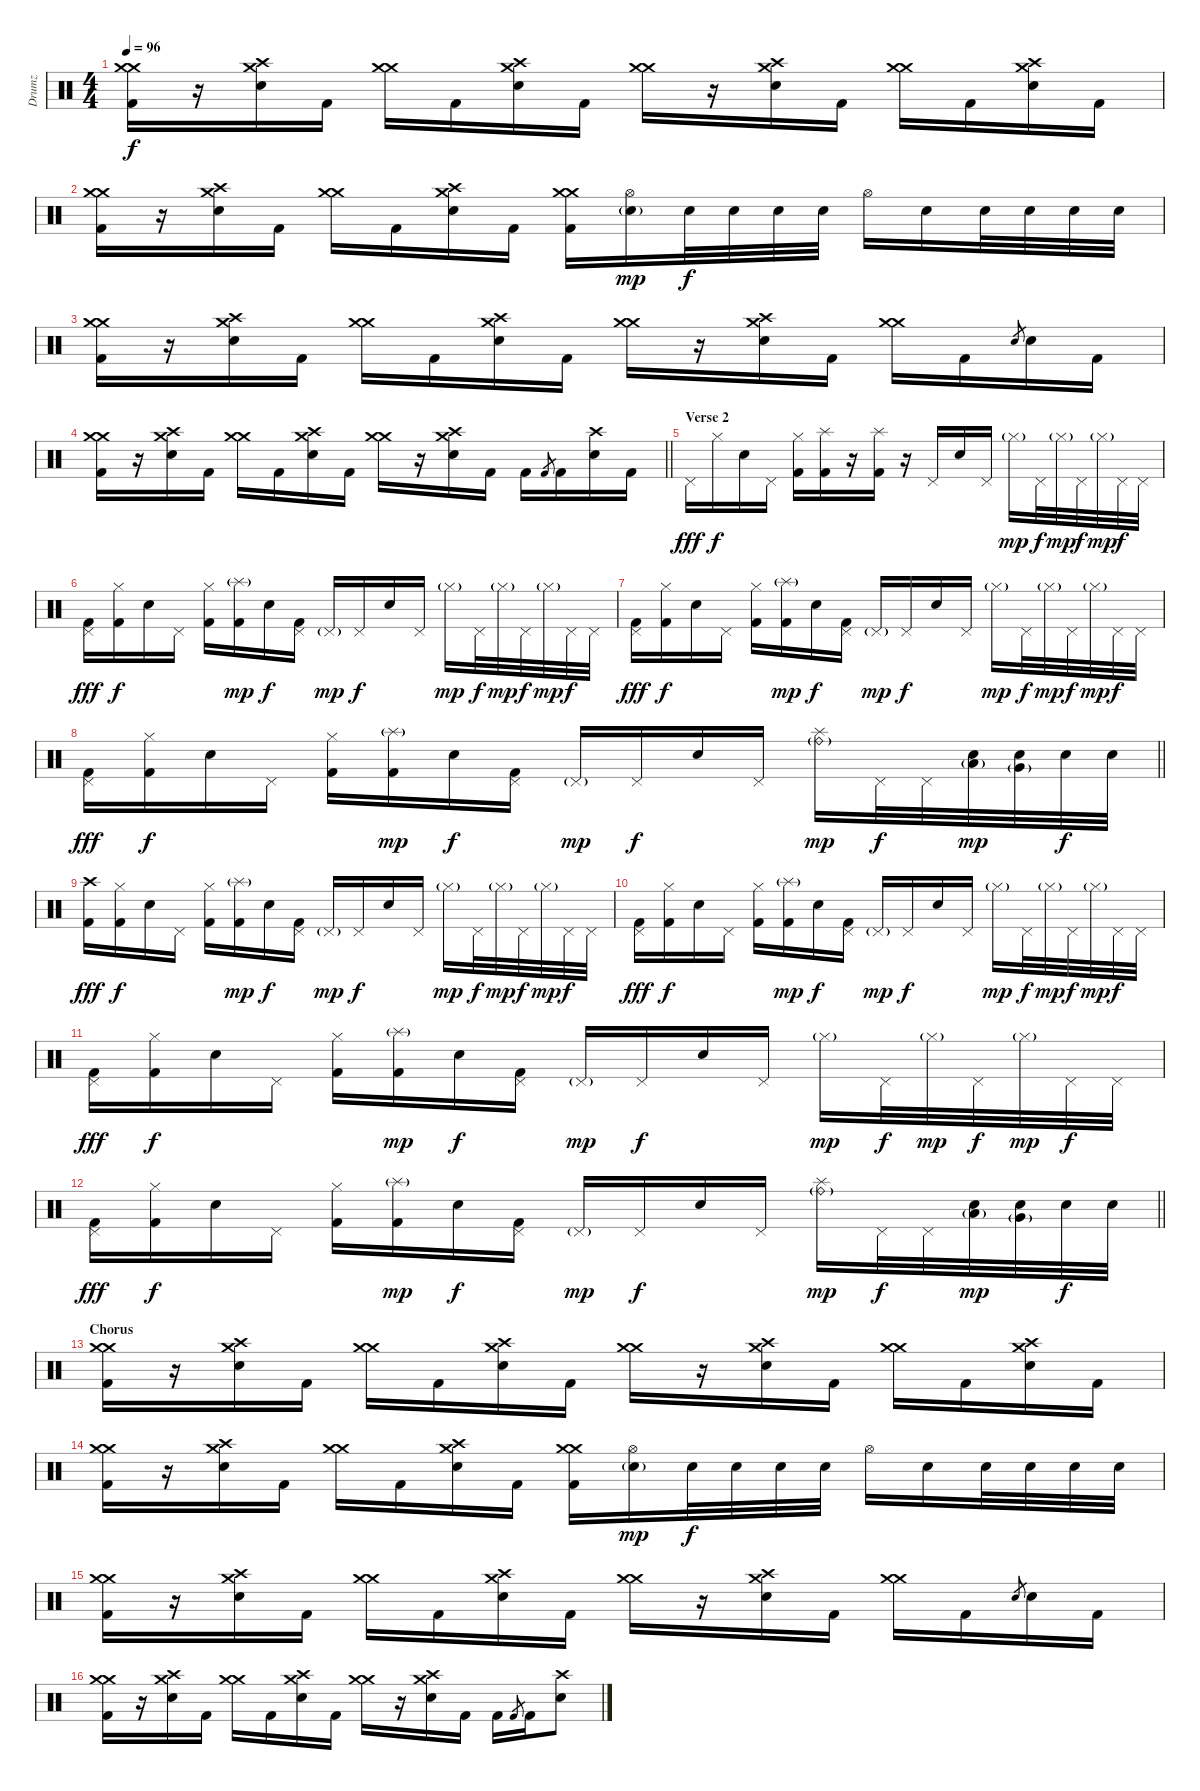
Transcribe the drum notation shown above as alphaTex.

\track ("Drumz" "Drumz") {instrument percussion}
\staff {score}
\articulation defaults
\ts (4 4)
\tempo 96
\clef neutral
\ks c
("Crash medium (hit)" "Crash medium (hit)" "Kick (hit) 2").16{dy f} r.16 ("Crash high (hit)" "Crash medium (hit)" "Electric Snare (hit)").16 "Kick (hit) 2".16 ("Crash medium (hit)" "Crash medium (hit)").16 "Kick (hit) 2".16 ("Crash high (hit)" "Crash medium (hit)" "Electric Snare (hit)").16 "Kick (hit) 2".16 ("Crash medium (hit)" "Crash medium (hit)").16 r.16 ("Crash high (hit)" "Crash medium (hit)" "Electric Snare (hit)").16 "Kick (hit) 2".16 ("Crash medium (hit)" "Crash medium (hit)").16 "Kick (hit) 2".16 ("Crash high (hit)" "Crash medium (hit)" "Electric Snare (hit)").16 "Kick (hit) 2".16 |
("Crash medium (hit)" "Crash medium (hit)" "Kick (hit) 2").16 r.16 ("Crash high (hit)" "Crash medium (hit)" "Electric Snare (hit)").16 "Kick (hit) 2".16 ("Crash medium (hit)" "Crash medium (hit)").16 "Kick (hit) 2".16 ("Crash high (hit)" "Crash medium (hit)" "Electric Snare (hit)").16 "Kick (hit) 2".16 ("Crash medium (hit)" "Crash medium (hit)" "Kick (hit) 2").16 ("Hi-Hat (open)" "Electric Snare (hit)"{g}).16{dy mp} "Electric Snare (hit)".32{dy f} "Electric Snare (hit)".32 "Electric Snare (hit)".32 "Electric Snare (hit)".32 "Hi-Hat (open)".16 "Electric Snare (hit)".16 "Electric Snare (hit)".32 "Electric Snare (hit)".32 "Electric Snare (hit)".32 "Electric Snare (hit)".32 |
("Crash medium (hit)" "Crash medium (hit)" "Kick (hit) 2").16 r.16 ("Crash high (hit)" "Crash medium (hit)" "Electric Snare (hit)").16 "Kick (hit) 2".16 ("Crash medium (hit)" "Crash medium (hit)").16 "Kick (hit) 2".16 ("Crash high (hit)" "Crash medium (hit)" "Electric Snare (hit)").16 "Kick (hit) 2".16 ("Crash medium (hit)" "Crash medium (hit)").16 r.16 ("Crash high (hit)" "Crash medium (hit)" "Electric Snare (hit)").16 "Kick (hit) 2".16 ("Crash medium (hit)" "Crash medium (hit)").16 "Kick (hit) 2".16 "Electric Snare (hit)".8{gr} "Electric Snare (hit)".16 "Kick (hit) 2".16 |
\barLineRight lightlight
("Crash medium (hit)" "Crash medium (hit)" "Kick (hit) 2").16 r.16 ("Crash high (hit)" "Crash medium (hit)" "Electric Snare (hit)").16 "Kick (hit) 2".16 ("Crash medium (hit)" "Crash medium (hit)").16 "Kick (hit) 2".16 ("Crash high (hit)" "Crash medium (hit)" "Electric Snare (hit)").16 "Kick (hit) 2".16 ("Crash medium (hit)" "Crash medium (hit)").16 r.16 ("Crash high (hit)" "Crash medium (hit)" "Electric Snare (hit)").16 "Kick (hit) 2".16 "Kick (hit) 2".16 "Kick (hit) 2".8{gr} "Kick (hit) 2".16 ("Crash high (hit)" "Electric Snare (hit)").16 "Kick (hit) 2".16 |
\section ("" "Verse 2")
"Pedal Hi-Hat (hit)".16{dy fff} "Hi-Hat (closed)".16{dy f} "Electric Snare (hit)".16 "Pedal Hi-Hat (hit)".16 ("Hi-Hat (closed)" "Kick (hit) 2").16 ("Splash (hit)" "Kick (hit) 2").16 r.16 ("Splash (hit)" "Kick (hit) 2").16 r.16 "Pedal Hi-Hat (hit)".16 "Electric Snare (hit)".16 "Pedal Hi-Hat (hit)".16 "Hi-Hat (closed)"{g}.16{dy mp} "Pedal Hi-Hat (hit)".32{dy f} "Hi-Hat (closed)"{g}.32{dy mp} "Pedal Hi-Hat (hit)".32{dy f} "Hi-Hat (closed)"{g}.32{dy mp} "Pedal Hi-Hat (hit)".32{dy f} "Pedal Hi-Hat (hit)".32 |
("Pedal Hi-Hat (hit)" "Kick (hit) 2").16{dy fff} ("Hi-Hat (closed)" "Kick (hit) 2").16{dy f} "Electric Snare (hit)".16 "Pedal Hi-Hat (hit)".16 ("Hi-Hat (closed)" "Kick (hit) 2").16 ("Splash (hit)"{g} "Kick (hit) 2").16{dy mp} "Electric Snare (hit)".16{dy f} ("Pedal Hi-Hat (hit)" "Kick (hit) 2").16 "Pedal Hi-Hat (hit)"{g}.16{dy mp} "Pedal Hi-Hat (hit)".16{dy f} "Electric Snare (hit)".16 "Pedal Hi-Hat (hit)".16 "Hi-Hat (closed)"{g}.16{dy mp} "Pedal Hi-Hat (hit)".32{dy f} "Hi-Hat (closed)"{g}.32{dy mp} "Pedal Hi-Hat (hit)".32{dy f} "Hi-Hat (closed)"{g}.32{dy mp} "Pedal Hi-Hat (hit)".32{dy f} "Pedal Hi-Hat (hit)".32 |
("Pedal Hi-Hat (hit)" "Kick (hit) 2").16{dy fff} ("Hi-Hat (closed)" "Kick (hit) 2").16{dy f} "Electric Snare (hit)".16 "Pedal Hi-Hat (hit)".16 ("Hi-Hat (closed)" "Kick (hit) 2").16 ("Splash (hit)"{g} "Kick (hit) 2").16{dy mp} "Electric Snare (hit)".16{dy f} ("Pedal Hi-Hat (hit)" "Kick (hit) 2").16 "Pedal Hi-Hat (hit)"{g}.16{dy mp} "Pedal Hi-Hat (hit)".16{dy f} "Electric Snare (hit)".16 "Pedal Hi-Hat (hit)".16 "Hi-Hat (closed)"{g}.16{dy mp} "Pedal Hi-Hat (hit)".32{dy f} "Hi-Hat (closed)"{g}.32{dy mp} "Pedal Hi-Hat (hit)".32{dy f} "Hi-Hat (closed)"{g}.32{dy mp} "Pedal Hi-Hat (hit)".32{dy f} "Pedal Hi-Hat (hit)".32 |
\barLineRight lightlight
("Pedal Hi-Hat (hit)" "Kick (hit) 2").16{dy fff} ("Hi-Hat (closed)" "Kick (hit) 2").16{dy f} "Electric Snare (hit)".16 "Pedal Hi-Hat (hit)".16 ("Hi-Hat (closed)" "Kick (hit) 2").16 ("Splash (hit)"{g} "Kick (hit) 2").16{dy mp} "Electric Snare (hit)".16{dy f} ("Pedal Hi-Hat (hit)" "Kick (hit) 2").16 "Pedal Hi-Hat (hit)"{g}.16{dy mp} "Pedal Hi-Hat (hit)".16{dy f} "Electric Snare (hit)".16 "Pedal Hi-Hat (hit)".16 ("Ride (bell)"{g} "Splash (hit)").16{dy mp} "Pedal Hi-Hat (hit)".32{dy f} "Pedal Hi-Hat (hit)".32 ("Low Floor Tom (hit)"{g} "Electric Snare (hit)").32{dy mp} ("Very Low Tom (hit)"{g} "Electric Snare (hit)").32 "Electric Snare (hit)".32{dy f} "Electric Snare (hit)".32 |
("Crash high (hit)" "Kick (hit) 2").16{dy fff} ("Hi-Hat (closed)" "Kick (hit) 2").16{dy f} "Electric Snare (hit)".16 "Pedal Hi-Hat (hit)".16 ("Hi-Hat (closed)" "Kick (hit) 2").16 ("Splash (hit)"{g} "Kick (hit) 2").16{dy mp} "Electric Snare (hit)".16{dy f} ("Pedal Hi-Hat (hit)" "Kick (hit) 2").16 "Pedal Hi-Hat (hit)"{g}.16{dy mp} "Pedal Hi-Hat (hit)".16{dy f} "Electric Snare (hit)".16 "Pedal Hi-Hat (hit)".16 "Hi-Hat (closed)"{g}.16{dy mp} "Pedal Hi-Hat (hit)".32{dy f} "Hi-Hat (closed)"{g}.32{dy mp} "Pedal Hi-Hat (hit)".32{dy f} "Hi-Hat (closed)"{g}.32{dy mp} "Pedal Hi-Hat (hit)".32{dy f} "Pedal Hi-Hat (hit)".32 |
("Pedal Hi-Hat (hit)" "Kick (hit) 2").16{dy fff} ("Hi-Hat (closed)" "Kick (hit) 2").16{dy f} "Electric Snare (hit)".16 "Pedal Hi-Hat (hit)".16 ("Hi-Hat (closed)" "Kick (hit) 2").16 ("Splash (hit)"{g} "Kick (hit) 2").16{dy mp} "Electric Snare (hit)".16{dy f} ("Pedal Hi-Hat (hit)" "Kick (hit) 2").16 "Pedal Hi-Hat (hit)"{g}.16{dy mp} "Pedal Hi-Hat (hit)".16{dy f} "Electric Snare (hit)".16 "Pedal Hi-Hat (hit)".16 "Hi-Hat (closed)"{g}.16{dy mp} "Pedal Hi-Hat (hit)".32{dy f} "Hi-Hat (closed)"{g}.32{dy mp} "Pedal Hi-Hat (hit)".32{dy f} "Hi-Hat (closed)"{g}.32{dy mp} "Pedal Hi-Hat (hit)".32{dy f} "Pedal Hi-Hat (hit)".32 |
("Pedal Hi-Hat (hit)" "Kick (hit) 2").16{dy fff} ("Hi-Hat (closed)" "Kick (hit) 2").16{dy f} "Electric Snare (hit)".16 "Pedal Hi-Hat (hit)".16 ("Hi-Hat (closed)" "Kick (hit) 2").16 ("Splash (hit)"{g} "Kick (hit) 2").16{dy mp} "Electric Snare (hit)".16{dy f} ("Pedal Hi-Hat (hit)" "Kick (hit) 2").16 "Pedal Hi-Hat (hit)"{g}.16{dy mp} "Pedal Hi-Hat (hit)".16{dy f} "Electric Snare (hit)".16 "Pedal Hi-Hat (hit)".16 "Hi-Hat (closed)"{g}.16{dy mp} "Pedal Hi-Hat (hit)".32{dy f} "Hi-Hat (closed)"{g}.32{dy mp} "Pedal Hi-Hat (hit)".32{dy f} "Hi-Hat (closed)"{g}.32{dy mp} "Pedal Hi-Hat (hit)".32{dy f} "Pedal Hi-Hat (hit)".32 |
\barLineRight lightlight
("Pedal Hi-Hat (hit)" "Kick (hit) 2").16{dy fff} ("Hi-Hat (closed)" "Kick (hit) 2").16{dy f} "Electric Snare (hit)".16 "Pedal Hi-Hat (hit)".16 ("Hi-Hat (closed)" "Kick (hit) 2").16 ("Splash (hit)"{g} "Kick (hit) 2").16{dy mp} "Electric Snare (hit)".16{dy f} ("Pedal Hi-Hat (hit)" "Kick (hit) 2").16 "Pedal Hi-Hat (hit)"{g}.16{dy mp} "Pedal Hi-Hat (hit)".16{dy f} "Electric Snare (hit)".16 "Pedal Hi-Hat (hit)".16 ("Ride (bell)"{g} "Splash (hit)").16{dy mp} "Pedal Hi-Hat (hit)".32{dy f} "Pedal Hi-Hat (hit)".32 ("Low Floor Tom (hit)"{g} "Electric Snare (hit)").32{dy mp} ("Very Low Tom (hit)"{g} "Electric Snare (hit)").32 "Electric Snare (hit)".32{dy f} "Electric Snare (hit)".32 |
\section ("" "Chorus")
("Crash medium (hit)" "Crash medium (hit)" "Kick (hit) 2").16 r.16 ("Crash high (hit)" "Crash medium (hit)" "Electric Snare (hit)").16 "Kick (hit) 2".16 ("Crash medium (hit)" "Crash medium (hit)").16 "Kick (hit) 2".16 ("Crash high (hit)" "Crash medium (hit)" "Electric Snare (hit)").16 "Kick (hit) 2".16 ("Crash medium (hit)" "Crash medium (hit)").16 r.16 ("Crash high (hit)" "Crash medium (hit)" "Electric Snare (hit)").16 "Kick (hit) 2".16 ("Crash medium (hit)" "Crash medium (hit)").16 "Kick (hit) 2".16 ("Crash high (hit)" "Crash medium (hit)" "Electric Snare (hit)").16 "Kick (hit) 2".16 |
("Crash medium (hit)" "Crash medium (hit)" "Kick (hit) 2").16 r.16 ("Crash high (hit)" "Crash medium (hit)" "Electric Snare (hit)").16 "Kick (hit) 2".16 ("Crash medium (hit)" "Crash medium (hit)").16 "Kick (hit) 2".16 ("Crash high (hit)" "Crash medium (hit)" "Electric Snare (hit)").16 "Kick (hit) 2".16 ("Crash medium (hit)" "Crash medium (hit)" "Kick (hit) 2").16 ("Hi-Hat (open)" "Electric Snare (hit)"{g}).16{dy mp} "Electric Snare (hit)".32{dy f} "Electric Snare (hit)".32 "Electric Snare (hit)".32 "Electric Snare (hit)".32 "Hi-Hat (open)".16 "Electric Snare (hit)".16 "Electric Snare (hit)".32 "Electric Snare (hit)".32 "Electric Snare (hit)".32 "Electric Snare (hit)".32 |
("Crash medium (hit)" "Crash medium (hit)" "Kick (hit) 2").16 r.16 ("Crash high (hit)" "Crash medium (hit)" "Electric Snare (hit)").16 "Kick (hit) 2".16 ("Crash medium (hit)" "Crash medium (hit)").16 "Kick (hit) 2".16 ("Crash high (hit)" "Crash medium (hit)" "Electric Snare (hit)").16 "Kick (hit) 2".16 ("Crash medium (hit)" "Crash medium (hit)").16 r.16 ("Crash high (hit)" "Crash medium (hit)" "Electric Snare (hit)").16 "Kick (hit) 2".16 ("Crash medium (hit)" "Crash medium (hit)").16 "Kick (hit) 2".16 "Electric Snare (hit)".8{gr} "Electric Snare (hit)".16 "Kick (hit) 2".16 |
("Crash medium (hit)" "Crash medium (hit)" "Kick (hit) 2").16 r.16 ("Crash high (hit)" "Crash medium (hit)" "Electric Snare (hit)").16 "Kick (hit) 2".16 ("Crash medium (hit)" "Crash medium (hit)").16 "Kick (hit) 2".16 ("Crash high (hit)" "Crash medium (hit)" "Electric Snare (hit)").16 "Kick (hit) 2".16 ("Crash medium (hit)" "Crash medium (hit)").16 r.16 ("Crash high (hit)" "Crash medium (hit)" "Electric Snare (hit)").16 "Kick (hit) 2".16 "Kick (hit) 2".16 "Kick (hit) 2".8{gr} "Kick (hit) 2".16 ("Crash high (hit)" "Electric Snare (hit)").8
